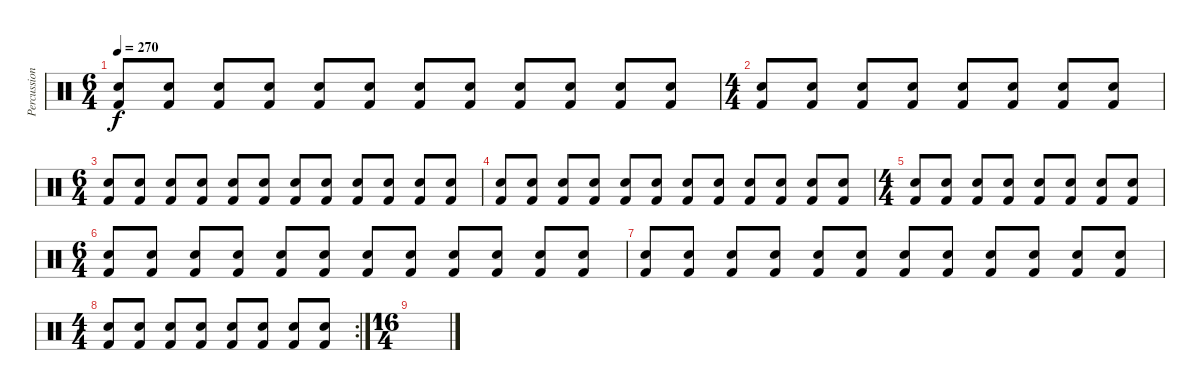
\track ("Percussion" "Percussion") {instrument percussion}
\staff {score}
\articulation defaults
\ts (6 4)
\tempo 270
\clef neutral
\ks c
("Electric Snare (hit)" "Kick (hit) 2").8{dy f} ("Electric Snare (hit)" "Kick (hit) 2").8 ("Electric Snare (hit)" "Kick (hit) 2").8 ("Electric Snare (hit)" "Kick (hit) 2").8 ("Electric Snare (hit)" "Kick (hit) 2").8 ("Electric Snare (hit)" "Kick (hit) 2").8 ("Electric Snare (hit)" "Kick (hit) 2").8 ("Electric Snare (hit)" "Kick (hit) 2").8 ("Electric Snare (hit)" "Kick (hit) 2").8 ("Electric Snare (hit)" "Kick (hit) 2").8 ("Electric Snare (hit)" "Kick (hit) 2").8 ("Electric Snare (hit)" "Kick (hit) 2").8 |
\ts (4 4)
("Electric Snare (hit)" "Kick (hit) 2").8 ("Electric Snare (hit)" "Kick (hit) 2").8 ("Electric Snare (hit)" "Kick (hit) 2").8 ("Electric Snare (hit)" "Kick (hit) 2").8 ("Electric Snare (hit)" "Kick (hit) 2").8 ("Electric Snare (hit)" "Kick (hit) 2").8 ("Electric Snare (hit)" "Kick (hit) 2").8 ("Electric Snare (hit)" "Kick (hit) 2").8 |
\ts (6 4)
("Electric Snare (hit)" "Kick (hit) 2").8 ("Electric Snare (hit)" "Kick (hit) 2").8 ("Electric Snare (hit)" "Kick (hit) 2").8 ("Electric Snare (hit)" "Kick (hit) 2").8 ("Electric Snare (hit)" "Kick (hit) 2").8 ("Electric Snare (hit)" "Kick (hit) 2").8 ("Electric Snare (hit)" "Kick (hit) 2").8 ("Electric Snare (hit)" "Kick (hit) 2").8 ("Electric Snare (hit)" "Kick (hit) 2").8 ("Electric Snare (hit)" "Kick (hit) 2").8 ("Electric Snare (hit)" "Kick (hit) 2").8 ("Electric Snare (hit)" "Kick (hit) 2").8 |
("Electric Snare (hit)" "Kick (hit) 2").8 ("Electric Snare (hit)" "Kick (hit) 2").8 ("Electric Snare (hit)" "Kick (hit) 2").8 ("Electric Snare (hit)" "Kick (hit) 2").8 ("Electric Snare (hit)" "Kick (hit) 2").8 ("Electric Snare (hit)" "Kick (hit) 2").8 ("Electric Snare (hit)" "Kick (hit) 2").8 ("Electric Snare (hit)" "Kick (hit) 2").8 ("Electric Snare (hit)" "Kick (hit) 2").8 ("Electric Snare (hit)" "Kick (hit) 2").8 ("Electric Snare (hit)" "Kick (hit) 2").8 ("Electric Snare (hit)" "Kick (hit) 2").8 |
\ts (4 4)
("Electric Snare (hit)" "Kick (hit) 2").8 ("Electric Snare (hit)" "Kick (hit) 2").8 ("Electric Snare (hit)" "Kick (hit) 2").8 ("Electric Snare (hit)" "Kick (hit) 2").8 ("Electric Snare (hit)" "Kick (hit) 2").8 ("Electric Snare (hit)" "Kick (hit) 2").8 ("Electric Snare (hit)" "Kick (hit) 2").8 ("Electric Snare (hit)" "Kick (hit) 2").8 |
\ts (6 4)
("Electric Snare (hit)" "Kick (hit) 2").8 ("Electric Snare (hit)" "Kick (hit) 2").8 ("Electric Snare (hit)" "Kick (hit) 2").8 ("Electric Snare (hit)" "Kick (hit) 2").8 ("Electric Snare (hit)" "Kick (hit) 2").8 ("Electric Snare (hit)" "Kick (hit) 2").8 ("Electric Snare (hit)" "Kick (hit) 2").8 ("Electric Snare (hit)" "Kick (hit) 2").8 ("Electric Snare (hit)" "Kick (hit) 2").8 ("Electric Snare (hit)" "Kick (hit) 2").8 ("Electric Snare (hit)" "Kick (hit) 2").8 ("Electric Snare (hit)" "Kick (hit) 2").8 |
("Electric Snare (hit)" "Kick (hit) 2").8 ("Electric Snare (hit)" "Kick (hit) 2").8 ("Electric Snare (hit)" "Kick (hit) 2").8 ("Electric Snare (hit)" "Kick (hit) 2").8 ("Electric Snare (hit)" "Kick (hit) 2").8 ("Electric Snare (hit)" "Kick (hit) 2").8 ("Electric Snare (hit)" "Kick (hit) 2").8 ("Electric Snare (hit)" "Kick (hit) 2").8 ("Electric Snare (hit)" "Kick (hit) 2").8 ("Electric Snare (hit)" "Kick (hit) 2").8 ("Electric Snare (hit)" "Kick (hit) 2").8 ("Electric Snare (hit)" "Kick (hit) 2").8 |
\rc 2
\ts (4 4)
("Electric Snare (hit)" "Kick (hit) 2").8 ("Electric Snare (hit)" "Kick (hit) 2").8 ("Electric Snare (hit)" "Kick (hit) 2").8 ("Electric Snare (hit)" "Kick (hit) 2").8 ("Electric Snare (hit)" "Kick (hit) 2").8 ("Electric Snare (hit)" "Kick (hit) 2").8 ("Electric Snare (hit)" "Kick (hit) 2").8 ("Electric Snare (hit)" "Kick (hit) 2").8 |
\ts (16 4)
